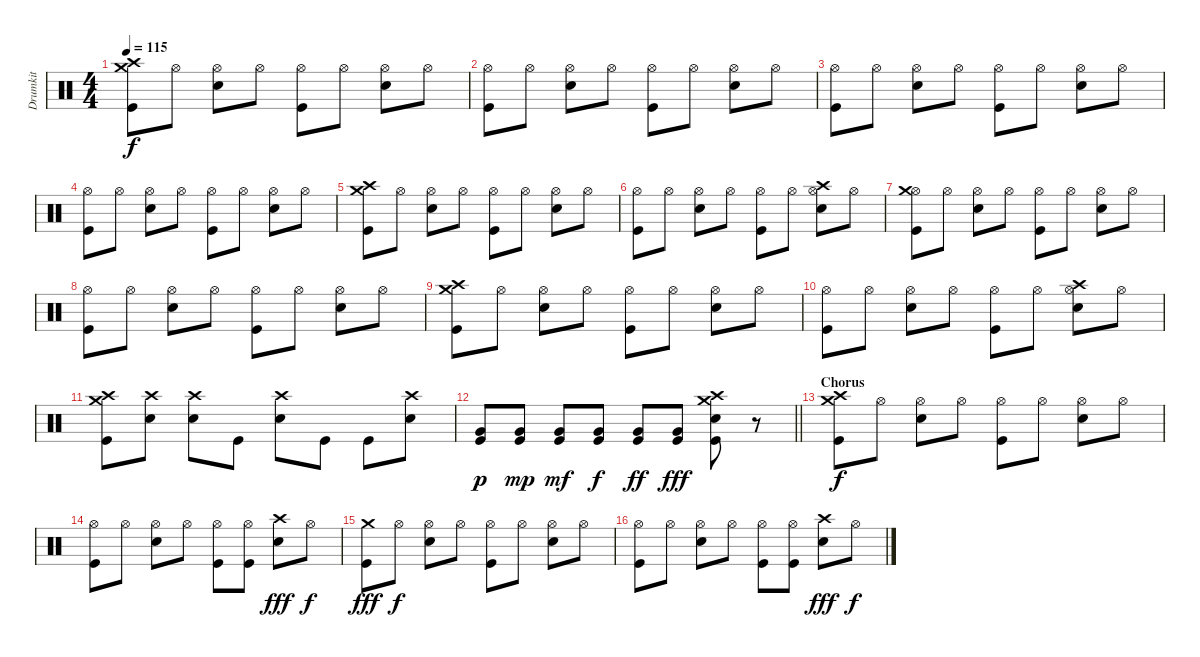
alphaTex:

\track ("Drumkit" "Drumkit") {instrument percussion}
\staff {score}
\articulation defaults
\ts (4 4)
\tempo 115
\clef neutral
\ks c
("Crash high (hit)" "Crash medium (hit)" "Kick (hit)").8{dy f} "Hi-Hat (open)".8 ("Hi-Hat (open)" "Snare (hit) 2").8 "Hi-Hat (open)".8 ("Hi-Hat (open)" "Kick (hit)").8 "Hi-Hat (open)".8 ("Hi-Hat (open)" "Snare (hit) 2").8 "Hi-Hat (open)".8 |
("Hi-Hat (open)" "Kick (hit)").8 "Hi-Hat (open)".8 ("Hi-Hat (open)" "Snare (hit) 2").8 "Hi-Hat (open)".8 ("Hi-Hat (open)" "Kick (hit)").8 "Hi-Hat (open)".8 ("Hi-Hat (open)" "Snare (hit) 2").8 "Hi-Hat (open)".8 |
("Hi-Hat (open)" "Kick (hit)").8 "Hi-Hat (open)".8 ("Hi-Hat (open)" "Snare (hit) 2").8 "Hi-Hat (open)".8 ("Hi-Hat (open)" "Kick (hit)").8 "Hi-Hat (open)".8 ("Hi-Hat (open)" "Snare (hit) 2").8 "Hi-Hat (open)".8 |
("Hi-Hat (open)" "Kick (hit)").8 "Hi-Hat (open)".8 ("Hi-Hat (open)" "Snare (hit) 2").8 "Hi-Hat (open)".8 ("Hi-Hat (open)" "Kick (hit)").8 "Hi-Hat (open)".8 ("Hi-Hat (open)" "Snare (hit) 2").8 "Hi-Hat (open)".8 |
("Crash high (hit)" "Crash medium (hit)" "Kick (hit)").8 "Hi-Hat (open)".8 ("Hi-Hat (open)" "Snare (hit) 2").8 "Hi-Hat (open)".8 ("Hi-Hat (open)" "Kick (hit)").8 "Hi-Hat (open)".8 ("Hi-Hat (open)" "Snare (hit) 2").8 "Hi-Hat (open)".8 |
("Hi-Hat (open)" "Kick (hit)").8 "Hi-Hat (open)".8 ("Hi-Hat (open)" "Snare (hit) 2").8 "Hi-Hat (open)".8 ("Hi-Hat (open)" "Kick (hit)").8 "Hi-Hat (open)".8 ("Hi-Hat (open)" "Crash high (hit)" "Snare (hit) 2").8 "Hi-Hat (open)".8 |
("Hi-Hat (open)" "Crash medium (hit)" "Kick (hit)").8 "Hi-Hat (open)".8 ("Hi-Hat (open)" "Snare (hit) 2").8 "Hi-Hat (open)".8 ("Hi-Hat (open)" "Kick (hit)").8 "Hi-Hat (open)".8 ("Hi-Hat (open)" "Snare (hit) 2").8 "Hi-Hat (open)".8 |
("Hi-Hat (open)" "Kick (hit)").8 "Hi-Hat (open)".8 ("Hi-Hat (open)" "Snare (hit) 2").8 "Hi-Hat (open)".8 ("Hi-Hat (open)" "Kick (hit)").8 "Hi-Hat (open)".8 ("Hi-Hat (open)" "Snare (hit) 2").8 "Hi-Hat (open)".8 |
("Crash high (hit)" "Crash medium (hit)" "Kick (hit)").8 "Hi-Hat (open)".8 ("Hi-Hat (open)" "Snare (hit) 2").8 "Hi-Hat (open)".8 ("Hi-Hat (open)" "Kick (hit)").8 "Hi-Hat (open)".8 ("Hi-Hat (open)" "Snare (hit) 2").8 "Hi-Hat (open)".8 |
("Hi-Hat (open)" "Kick (hit)").8 "Hi-Hat (open)".8 ("Hi-Hat (open)" "Snare (hit) 2").8 "Hi-Hat (open)".8 ("Hi-Hat (open)" "Kick (hit)").8 "Hi-Hat (open)".8 ("Hi-Hat (open)" "Crash high (hit)" "Snare (hit) 2").8 "Hi-Hat (open)".8 |
("Crash high (hit)" "Crash medium (hit)" "Kick (hit)").8 ("Crash high (hit)" "Snare (hit) 2").8 ("Crash high (hit)" "Snare (hit) 2").8 "Kick (hit)".8 ("Crash high (hit)" "Snare (hit) 2").8 "Kick (hit)".8 "Kick (hit)".8 ("Crash high (hit)" "Snare (hit) 2").8 |
\barLineRight lightlight
("Very Low Tom (hit)" "Kick (hit)").8{dy p} ("Very Low Tom (hit)" "Kick (hit)").8{dy mp} ("Very Low Tom (hit)" "Kick (hit)").8{dy mf} ("Very Low Tom (hit)" "Kick (hit)").8{dy f} ("Very Low Tom (hit)" "Kick (hit)").8{dy ff} ("Very Low Tom (hit)" "Kick (hit)").8{dy fff} ("Kick (hit)" "Crash medium (hit)" "Crash high (hit)" "Snare (hit) 2").8 r.8 |
\section ("" "Chorus")
("Crash high (hit)" "Crash medium (hit)" "Kick (hit)").8{dy f} "Hi-Hat (open)".8 ("Hi-Hat (open)" "Snare (hit) 2").8 "Hi-Hat (open)".8 ("Hi-Hat (open)" "Kick (hit)").8 "Hi-Hat (open)".8 ("Hi-Hat (open)" "Snare (hit) 2").8 "Hi-Hat (open)".8 |
("Hi-Hat (open)" "Kick (hit)").8 "Hi-Hat (open)".8 ("Hi-Hat (open)" "Snare (hit) 2").8 "Hi-Hat (open)".8 ("Hi-Hat (open)" "Kick (hit)").8 ("Hi-Hat (open)" "Kick (hit)").8 ("Crash high (hit)" "Snare (hit) 2").8{dy fff} "Hi-Hat (open)".8{dy f} |
("Crash medium (hit)" "Kick (hit)").8{dy fff} "Hi-Hat (open)".8{dy f} ("Hi-Hat (open)" "Snare (hit) 2").8 "Hi-Hat (open)".8 ("Hi-Hat (open)" "Kick (hit)").8 "Hi-Hat (open)".8 ("Hi-Hat (open)" "Snare (hit) 2").8 "Hi-Hat (open)".8 |
("Hi-Hat (open)" "Kick (hit)").8 "Hi-Hat (open)".8 ("Hi-Hat (open)" "Snare (hit) 2").8 "Hi-Hat (open)".8 ("Hi-Hat (open)" "Kick (hit)").8 ("Hi-Hat (open)" "Kick (hit)").8 ("Crash high (hit)" "Snare (hit) 2").8{dy fff} "Hi-Hat (open)".8{dy f}
